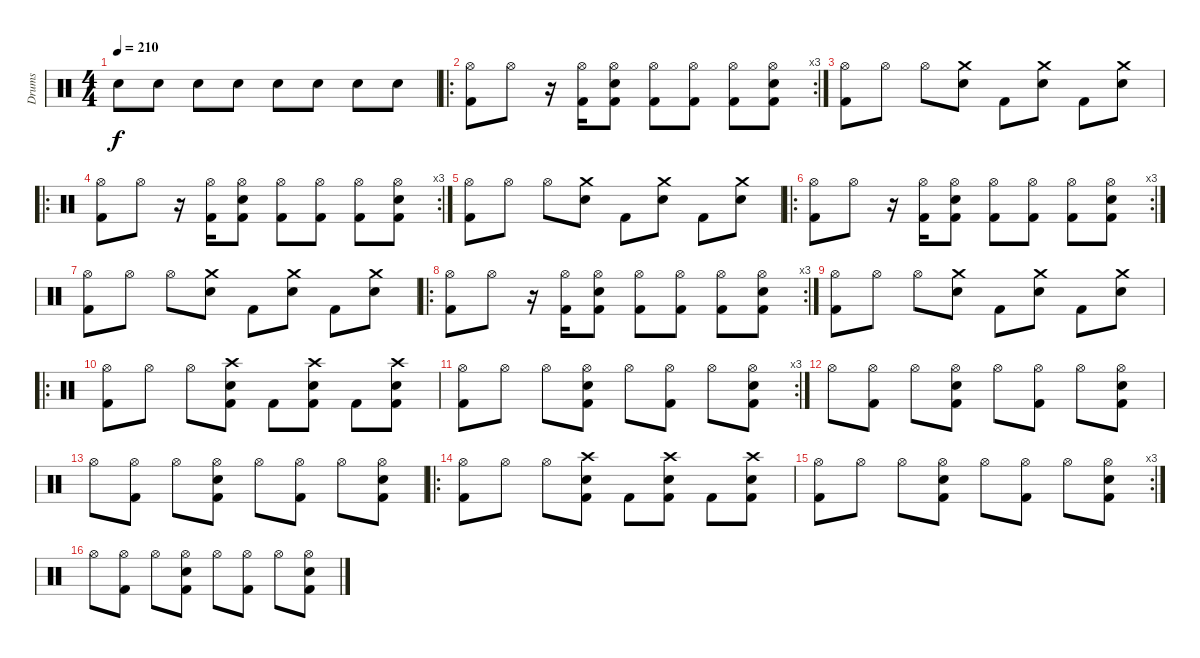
\track ("Drums" "Drums") {instrument percussion}
\staff {score}
\articulation defaults
\ts (4 4)
\tempo 210
\clef neutral
\ks c "Snare (hit) 2".8{dy f} "Snare (hit) 2".8 "Snare (hit) 2".8 "Snare (hit) 2".8 "Snare (hit) 2".8 "Snare (hit) 2".8 "Snare (hit) 2".8 "Snare (hit) 2".8
|
\ro
\rc 3
("Kick (hit) 2" "Hi-Hat (open)").8 "Hi-Hat (open)".8 r.16 ("Kick (hit) 2" "Hi-Hat (open)").16 ("Snare (hit) 2" "Kick (hit) 2" "Hi-Hat (open)").8 ("Kick (hit) 2" "Hi-Hat (open)").8 ("Kick (hit) 2" "Hi-Hat (open)").8 ("Kick (hit) 2" "Hi-Hat (open)").8 ("Snare (hit) 2" "Kick (hit) 2" "Hi-Hat (open)").8 |
("Kick (hit) 2" "Hi-Hat (open)").8 "Hi-Hat (open)".8 "Hi-Hat (open)".8 ("Snare (hit) 2" "Crash medium (hit)").8 "Kick (hit) 2".8 ("Snare (hit) 2" "Crash medium (hit)").8 "Kick (hit) 2".8 ("Snare (hit) 2" "Crash medium (hit)").8 |
\ro
\rc 3
("Kick (hit) 2" "Hi-Hat (open)").8 "Hi-Hat (open)".8 r.16 ("Kick (hit) 2" "Hi-Hat (open)").16 ("Snare (hit) 2" "Kick (hit) 2" "Hi-Hat (open)").8 ("Kick (hit) 2" "Hi-Hat (open)").8 ("Kick (hit) 2" "Hi-Hat (open)").8 ("Kick (hit) 2" "Hi-Hat (open)").8 ("Snare (hit) 2" "Kick (hit) 2" "Hi-Hat (open)").8 |
("Kick (hit) 2" "Hi-Hat (open)").8 "Hi-Hat (open)".8 "Hi-Hat (open)".8 ("Snare (hit) 2" "Crash medium (hit)").8 "Kick (hit) 2".8 ("Snare (hit) 2" "Crash medium (hit)").8 "Kick (hit) 2".8 ("Snare (hit) 2" "Crash medium (hit)").8 |
\ro
\rc 3
("Kick (hit) 2" "Hi-Hat (open)").8 "Hi-Hat (open)".8 r.16 ("Kick (hit) 2" "Hi-Hat (open)").16 ("Snare (hit) 2" "Kick (hit) 2" "Hi-Hat (open)").8 ("Kick (hit) 2" "Hi-Hat (open)").8 ("Kick (hit) 2" "Hi-Hat (open)").8 ("Kick (hit) 2" "Hi-Hat (open)").8 ("Snare (hit) 2" "Kick (hit) 2" "Hi-Hat (open)").8 |
("Kick (hit) 2" "Hi-Hat (open)").8 "Hi-Hat (open)".8 "Hi-Hat (open)".8 ("Snare (hit) 2" "Crash medium (hit)").8 "Kick (hit) 2".8 ("Snare (hit) 2" "Crash medium (hit)").8 "Kick (hit) 2".8 ("Snare (hit) 2" "Crash medium (hit)").8 |
\ro
\rc 3
("Kick (hit) 2" "Hi-Hat (open)").8 "Hi-Hat (open)".8 r.16 ("Kick (hit) 2" "Hi-Hat (open)").16 ("Snare (hit) 2" "Kick (hit) 2" "Hi-Hat (open)").8 ("Kick (hit) 2" "Hi-Hat (open)").8 ("Kick (hit) 2" "Hi-Hat (open)").8 ("Kick (hit) 2" "Hi-Hat (open)").8 ("Snare (hit) 2" "Kick (hit) 2" "Hi-Hat (open)").8 |
("Kick (hit) 2" "Hi-Hat (open)").8 "Hi-Hat (open)".8 "Hi-Hat (open)".8 ("Snare (hit) 2" "Crash medium (hit)").8 "Kick (hit) 2".8 ("Snare (hit) 2" "Crash medium (hit)").8 "Kick (hit) 2".8 ("Snare (hit) 2" "Crash medium (hit)").8 |
\ro
("Kick (hit) 2" "Hi-Hat (open)").8 "Hi-Hat (open)".8 "Hi-Hat (open)".8 ("Snare (hit) 2" "Kick (hit) 2" "Crash high (hit)").8 "Kick (hit) 2".8 ("Snare (hit) 2" "Kick (hit) 2" "Crash high (hit)").8 "Kick (hit) 2".8 ("Snare (hit) 2" "Kick (hit) 2" "Crash high (hit)").8 |
\rc 3
("Kick (hit) 2" "Hi-Hat (open)").8 "Hi-Hat (open)".8 "Hi-Hat (open)".8 ("Snare (hit) 2" "Kick (hit) 2" "Hi-Hat (open)").8 "Hi-Hat (open)".8 ("Kick (hit) 2" "Hi-Hat (open)").8 "Hi-Hat (open)".8 ("Snare (hit) 2" "Kick (hit) 2" "Hi-Hat (open)").8 |
"Hi-Hat (open)".8 ("Kick (hit) 2" "Hi-Hat (open)").8 "Hi-Hat (open)".8 ("Snare (hit) 2" "Kick (hit) 2" "Hi-Hat (open)").8 "Hi-Hat (open)".8 ("Kick (hit) 2" "Hi-Hat (open)").8 "Hi-Hat (open)".8 ("Snare (hit) 2" "Kick (hit) 2" "Hi-Hat (open)").8 |
"Hi-Hat (open)".8 ("Kick (hit) 2" "Hi-Hat (open)").8 "Hi-Hat (open)".8 ("Snare (hit) 2" "Kick (hit) 2" "Hi-Hat (open)").8 "Hi-Hat (open)".8 ("Kick (hit) 2" "Hi-Hat (open)").8 "Hi-Hat (open)".8 ("Snare (hit) 2" "Kick (hit) 2" "Hi-Hat (open)").8 |
\ro
("Kick (hit) 2" "Hi-Hat (open)").8 "Hi-Hat (open)".8 "Hi-Hat (open)".8 ("Snare (hit) 2" "Kick (hit) 2" "Crash high (hit)").8 "Kick (hit) 2".8 ("Snare (hit) 2" "Kick (hit) 2" "Crash high (hit)").8 "Kick (hit) 2".8 ("Snare (hit) 2" "Kick (hit) 2" "Crash high (hit)").8 |
\rc 3
("Kick (hit) 2" "Hi-Hat (open)").8 "Hi-Hat (open)".8 "Hi-Hat (open)".8 ("Snare (hit) 2" "Kick (hit) 2" "Hi-Hat (open)").8 "Hi-Hat (open)".8 ("Kick (hit) 2" "Hi-Hat (open)").8 "Hi-Hat (open)".8 ("Snare (hit) 2" "Kick (hit) 2" "Hi-Hat (open)").8 |
"Hi-Hat (open)".8 ("Kick (hit) 2" "Hi-Hat (open)").8 "Hi-Hat (open)".8 ("Snare (hit) 2" "Kick (hit) 2" "Hi-Hat (open)").8 "Hi-Hat (open)".8 ("Kick (hit) 2" "Hi-Hat (open)").8 "Hi-Hat (open)".8 ("Snare (hit) 2" "Kick (hit) 2" "Hi-Hat (open)").8
